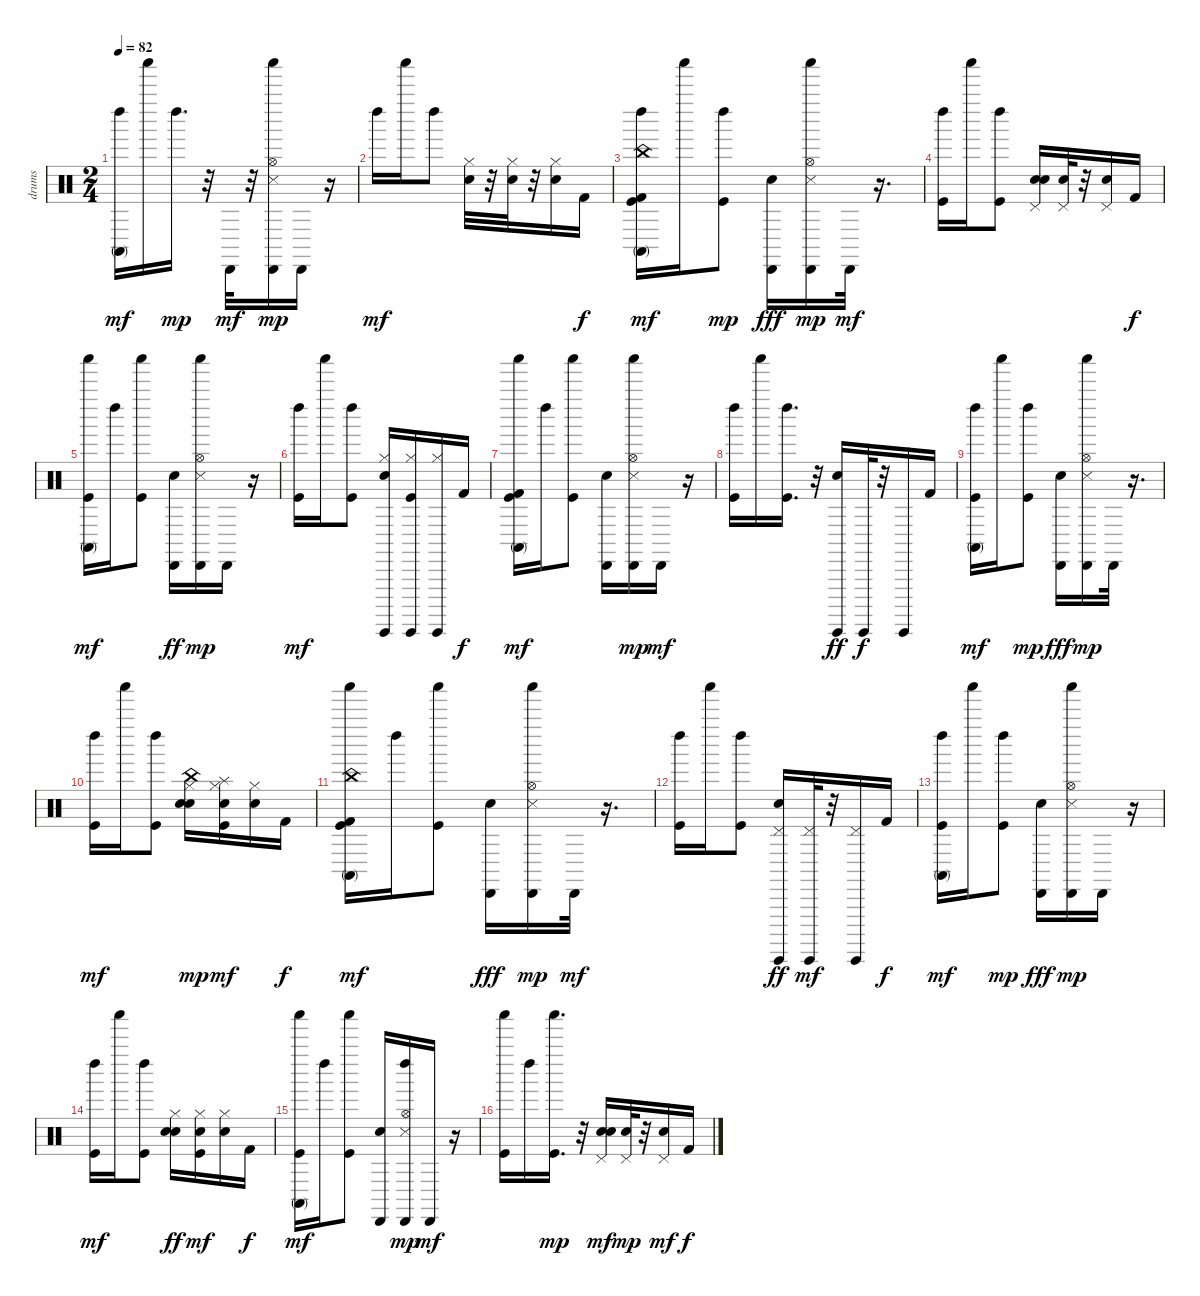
\track ("drums" "drums") {instrument percussion}
\staff {score}
\articulation defaults
\ts (2 4)
\tempo 82
\clef neutral
\ks c
("Left Maraca (hit)" "Conga high (mute)").16{dy mf} "Shaker (hit)".16 "Left Maraca (hit)".16{d dy mp} r.32 "Cabasa (hit)".32{dy mf} r.32 ("Cabasa (hit)" "Snare (side stick) 3" "Shaker (hit)" "Hi-Hat (open)").16{dy mp} "Cabasa (hit)".16 r.16 |
"Left Maraca (hit)".16{dy mf} "Shaker (hit)".16 "Left Maraca (hit)".8 ("Hand Clap (hit)" "Hi-Hat (closed)").32 r.32 ("Hi-Hat (closed)" "Hand Clap (hit)").32 r.32 ("Hi-Hat (closed)" "Hand Clap (hit)").16 "Kick (hit) 2".16{dy f} |
("Kick (hit) 2" "Kick (hit)" "Left Maraca (hit)" "Conga high (mute)" "China (hit)").16{dy mf} "Shaker (hit)".16 ("Kick (hit)" "Left Maraca (hit)").8{dy mp} ("Cabasa (hit)" "Electric Snare (hit)").16{dy fff} ("Cabasa (hit)" "Snare (side stick) 3" "Shaker (hit)" "Hi-Hat (open)").16{dy mp} "Cabasa (hit)".32{dy mf} r.16{d} |
("Kick (hit)" "Left Maraca (hit)").16 "Shaker (hit)".16 ("Kick (hit)" "Left Maraca (hit)").8 ("Electric Snare (hit)" "Hand Clap (hit)" "Pedal Hi-Hat (hit)").16 ("Pedal Hi-Hat (hit)" "Hand Clap (hit)").32 r.32 ("Pedal Hi-Hat (hit)" "Hand Clap (hit)").16 "Kick (hit) 2".16{dy f} |
("Kick (hit)" "Shaker (hit)" "Conga high (mute)").16{dy mf} "Left Maraca (hit)".16 ("Kick (hit)" "Shaker (hit)").8 ("Cabasa (hit)" "Electric Snare (hit)").16{dy ff} ("Cabasa (hit)" "Snare (side stick) 3" "Shaker (hit)" "Hi-Hat (open)").16{dy mp} "Cabasa (hit)".16 r.16 |
("Kick (hit)" "Left Maraca (hit)").16{dy mf} "Shaker (hit)".16 ("Kick (hit)" "Left Maraca (hit)").8 ("Electric Snare (hit)" "Hi-Hat (closed)" "Guiro (hit)").16 ("Kick (hit)" "Guiro (hit)" "Hi-Hat (closed)").16 ("Guiro (hit)" "Hi-Hat (closed)").16 "Kick (hit) 2".16{dy f} |
("Kick (hit) 2" "Kick (hit)" "Shaker (hit)" "Conga high (mute)").16{dy mf} "Left Maraca (hit)".16 ("Kick (hit)" "Shaker (hit)").8 ("Electric Snare (hit)" "Cabasa (hit)").16 ("Snare (side stick) 3" "Shaker (hit)" "Hi-Hat (open)" "Cabasa (hit)").16{dy mp} "Cabasa (hit)".16{dy mf} r.16 |
("Kick (hit)" "Left Maraca (hit)").16 "Shaker (hit)".16 ("Kick (hit)" "Left Maraca (hit)").16{d} r.32 ("Guiro (hit)" "Electric Snare (hit)").16{dy ff} "Guiro (hit)".32{dy f} r.32 "Guiro (hit)".16 "Kick (hit) 2".16 |
("Kick (hit)" "Left Maraca (hit)" "Conga high (mute)").16{dy mf} "Shaker (hit)".16 ("Kick (hit)" "Left Maraca (hit)").8{dy mp} ("Cabasa (hit)" "Electric Snare (hit)").16{dy fff} ("Snare (side stick) 3" "Shaker (hit)" "Hi-Hat (open)" "Cabasa (hit)").16{dy mp} "Cabasa (hit)".32 r.16{d} |
("Kick (hit)" "Left Maraca (hit)").16{dy mf} "Shaker (hit)".16 ("Kick (hit)" "Left Maraca (hit)").8 ("Electric Snare (hit)" "Hand Clap (hit)" "Hi-Hat (closed)" "China (hit)").16{dy mp} ("Kick (hit)" "Hi-Hat (closed)" "Hand Clap (hit)" "Splash (hit)").16{dy mf} ("Hi-Hat (closed)" "Hand Clap (hit)").16 "Kick (hit) 2".16{dy f} |
("Kick (hit) 2" "Kick (hit)" "Shaker (hit)" "Conga high (mute)" "China (hit)").16{dy mf} "Left Maraca (hit)".16 ("Kick (hit)" "Shaker (hit)").8 ("Cabasa (hit)" "Electric Snare (hit)").16{dy fff} ("Cabasa (hit)" "Hi-Hat (open)" "Shaker (hit)" "Snare (side stick) 3").16{dy mp} "Cabasa (hit)".32{dy mf} r.16{d} |
("Kick (hit)" "Left Maraca (hit)").16 "Shaker (hit)".16 ("Kick (hit)" "Left Maraca (hit)").8 ("Pedal Hi-Hat (hit)" "Guiro (hit)" "Electric Snare (hit)").16{dy ff} ("Guiro (hit)" "Pedal Hi-Hat (hit)").32{dy mf} r.32 ("Guiro (hit)" "Pedal Hi-Hat (hit)").16 "Kick (hit) 2".16{dy f} |
("Kick (hit)" "Left Maraca (hit)" "Conga high (mute)").16{dy mf} "Shaker (hit)".16 ("Kick (hit)" "Left Maraca (hit)").8{dy mp} ("Cabasa (hit)" "Electric Snare (hit)").16{dy fff} ("Cabasa (hit)" "Snare (side stick) 3" "Shaker (hit)" "Hi-Hat (open)").16{dy mp} "Cabasa (hit)".16 r.16 |
("Kick (hit)" "Left Maraca (hit)").16{dy mf} "Shaker (hit)".16 ("Kick (hit)" "Left Maraca (hit)").8 ("Hand Clap (hit)" "Hi-Hat (closed)" "Electric Snare (hit)").16{dy ff} ("Kick (hit)" "Hi-Hat (closed)" "Hand Clap (hit)").16{dy mf} ("Hi-Hat (closed)" "Hand Clap (hit)").16 "Kick (hit) 2".16{dy f} |
("Kick (hit)" "Shaker (hit)" "Conga high (mute)").16{dy mf} "Left Maraca (hit)".16 ("Kick (hit)" "Shaker (hit)").8 ("Electric Snare (hit)" "Cabasa (hit)").16 ("Hi-Hat (open)" "Left Maraca (hit)" "Snare (side stick) 3" "Cabasa (hit)").16{dy mp} "Cabasa (hit)".16{dy mf} r.16 |
("Kick (hit)" "Shaker (hit)").16 "Left Maraca (hit)".16 ("Kick (hit)" "Shaker (hit)").16{d dy mp} r.32 ("Electric Snare (hit)" "Hand Clap (hit)" "Pedal Hi-Hat (hit)").16{dy mf} ("Pedal Hi-Hat (hit)" "Hand Clap (hit)").32{dy mp} r.32 ("Pedal Hi-Hat (hit)" "Hand Clap (hit)").16{dy mf} "Kick (hit) 2".16{dy f}
